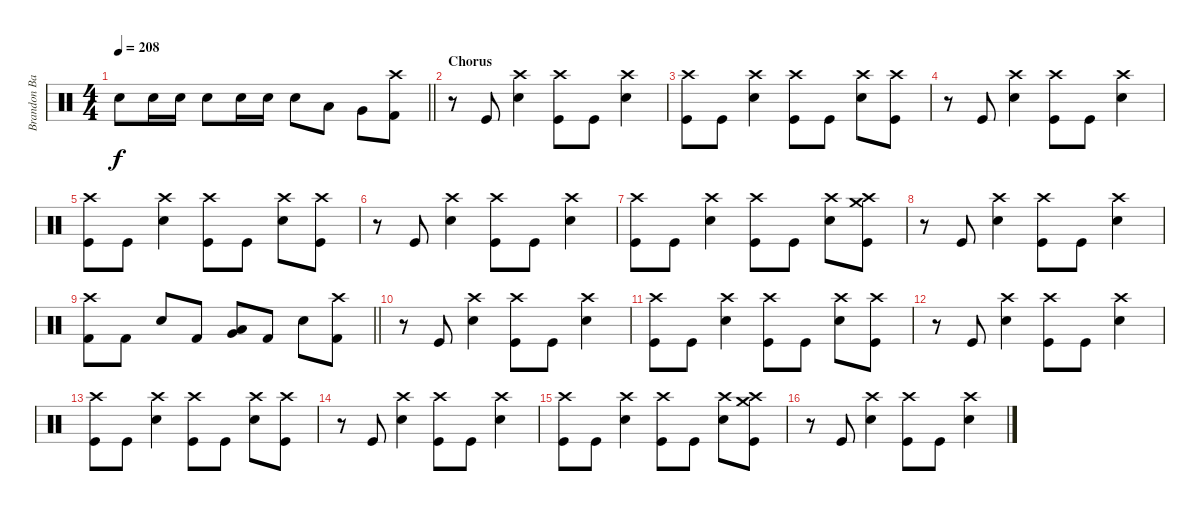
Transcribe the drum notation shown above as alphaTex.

\track ("Brandon Barnes - Drums" "Brandon Ba") {instrument percussion}
\staff {score}
\articulation defaults
\ts (4 4)
\tempo 208
\clef neutral
\barLineRight lightlight
\ks c "Snare (hit) 2".8{dy f} "Snare (hit) 2".16 "Snare (hit) 2".16 "Snare (hit) 2".8 "Snare (hit) 2".16 "Snare (hit) 2".16 "Snare (hit) 2".8 "Low Tom (hit)".8 "Very Low Tom (hit)".8
("Crash high (hit)" "Kick (hit) 2").8 |
\section ("" "Chorus")
r.8 "Kick (hit)".8 ("Snare (hit) 2" "Crash high (hit)").4 ("Kick (hit)" "Crash high (hit)").8 "Kick (hit)".8 ("Snare (hit) 2" "Crash high (hit)").4 |
("Kick (hit)" "Crash high (hit)").8 "Kick (hit)".8 ("Snare (hit) 2" "Crash high (hit)").4 ("Kick (hit)" "Crash high (hit)").8 "Kick (hit)".8 ("Snare (hit) 2" "Crash high (hit)").8 ("Kick (hit)" "Crash high (hit)").8 |
r.8 "Kick (hit)".8 ("Snare (hit) 2" "Crash high (hit)").4 ("Kick (hit)" "Crash high (hit)").8 "Kick (hit)".8 ("Snare (hit) 2" "Crash high (hit)").4 |
("Kick (hit)" "Crash high (hit)").8 "Kick (hit)".8 ("Snare (hit) 2" "Crash high (hit)").4 ("Kick (hit)" "Crash high (hit)").8 "Kick (hit)".8 ("Snare (hit) 2" "Crash high (hit)").8 ("Kick (hit)" "Crash high (hit)").8 |
r.8 "Kick (hit)".8 ("Snare (hit) 2" "Crash high (hit)").4 ("Kick (hit)" "Crash high (hit)").8 "Kick (hit)".8 ("Snare (hit) 2" "Crash high (hit)").4 |
("Kick (hit)" "Crash high (hit)").8 "Kick (hit)".8 ("Snare (hit) 2" "Crash high (hit)").4 ("Kick (hit)" "Crash high (hit)").8 "Kick (hit)".8 ("Snare (hit) 2" "Crash high (hit)").8 ("Kick (hit)" "Crash high (hit)" "Crash medium (hit)").8 |
r.8 "Kick (hit)".8 ("Snare (hit) 2" "Crash high (hit)").4 ("Kick (hit)" "Crash high (hit)").8 "Kick (hit)".8 ("Snare (hit) 2" "Crash high (hit)").4 |
\barLineRight lightlight
("Kick (hit) 2" "Crash high (hit)").8 "Kick (hit) 2".8 "Snare (hit) 2".8 "Kick (hit) 2".8 ("Low Tom (hit)" "Very Low Tom (hit)").8 "Kick (hit) 2".8 "Snare (hit) 2".8 ("Kick (hit) 2" "Crash high (hit)").8 |
r.8 "Kick (hit)".8 ("Snare (hit) 2" "Crash high (hit)").4 ("Kick (hit)" "Crash high (hit)").8 "Kick (hit)".8 ("Snare (hit) 2" "Crash high (hit)").4 |
("Kick (hit)" "Crash high (hit)").8 "Kick (hit)".8 ("Snare (hit) 2" "Crash high (hit)").4 ("Kick (hit)" "Crash high (hit)").8 "Kick (hit)".8 ("Snare (hit) 2" "Crash high (hit)").8 ("Kick (hit)" "Crash high (hit)").8 |
r.8 "Kick (hit)".8 ("Snare (hit) 2" "Crash high (hit)").4 ("Kick (hit)" "Crash high (hit)").8 "Kick (hit)".8 ("Snare (hit) 2" "Crash high (hit)").4 |
("Kick (hit)" "Crash high (hit)").8 "Kick (hit)".8 ("Snare (hit) 2" "Crash high (hit)").4 ("Kick (hit)" "Crash high (hit)").8 "Kick (hit)".8 ("Snare (hit) 2" "Crash high (hit)").8 ("Kick (hit)" "Crash high (hit)").8 |
r.8 "Kick (hit)".8 ("Snare (hit) 2" "Crash high (hit)").4 ("Kick (hit)" "Crash high (hit)").8 "Kick (hit)".8 ("Snare (hit) 2" "Crash high (hit)").4 |
("Kick (hit)" "Crash high (hit)").8 "Kick (hit)".8 ("Snare (hit) 2" "Crash high (hit)").4 ("Kick (hit)" "Crash high (hit)").8 "Kick (hit)".8 ("Snare (hit) 2" "Crash high (hit)").8 ("Kick (hit)" "Crash high (hit)" "Crash medium (hit)").8 |
r.8 "Kick (hit)".8 ("Snare (hit) 2" "Crash high (hit)").4 ("Kick (hit)" "Crash high (hit)").8 "Kick (hit)".8 ("Snare (hit) 2" "Crash high (hit)").4
